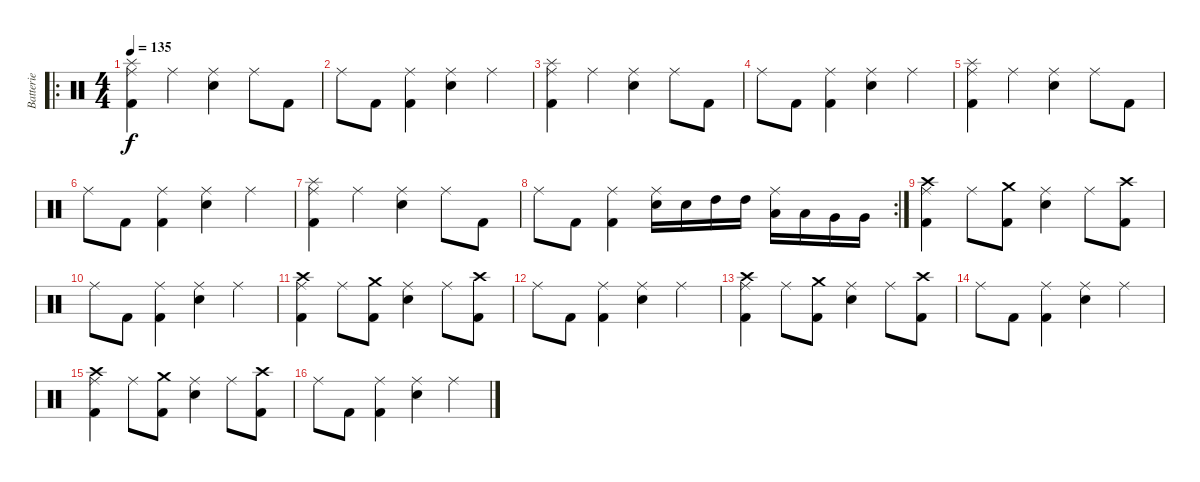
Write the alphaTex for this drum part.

\track ("Batterie" "Batterie") {instrument percussion}
\staff {score}
\articulation defaults
\ro
\ts (4 4)
\tempo 135
\clef neutral
\ks c
("Splash (hit)" "Ride (middle)" "Kick (hit) 2").4{dy f} "Ride (middle)".4 ("Ride (middle)" "Snare (hit) 2").4 "Ride (middle)".8 "Kick (hit) 2".8 |
"Ride (middle)".8 "Kick (hit) 2".8 ("Ride (middle)" "Kick (hit) 2").4 ("Ride (middle)" "Snare (hit) 2").4 "Ride (middle)".4 |
("Splash (hit)" "Ride (middle)" "Kick (hit) 2").4 "Ride (middle)".4 ("Ride (middle)" "Snare (hit) 2").4 "Ride (middle)".8 "Kick (hit) 2".8 |
"Ride (middle)".8 "Kick (hit) 2".8 ("Ride (middle)" "Kick (hit) 2").4 ("Ride (middle)" "Snare (hit) 2").4 "Ride (middle)".4 |
("Splash (hit)" "Ride (middle)" "Kick (hit) 2").4 "Ride (middle)".4 ("Ride (middle)" "Snare (hit) 2").4 "Ride (middle)".8 "Kick (hit) 2".8 |
"Ride (middle)".8 "Kick (hit) 2".8 ("Ride (middle)" "Kick (hit) 2").4 ("Ride (middle)" "Snare (hit) 2").4 "Ride (middle)".4 |
("Splash (hit)" "Ride (middle)" "Kick (hit) 2").4 "Ride (middle)".4 ("Ride (middle)" "Snare (hit) 2").4 "Ride (middle)".8 "Kick (hit) 2".8 |
\rc 2 "Ride (middle)".8 "Kick (hit) 2".8
("Ride (middle)" "Kick (hit) 2").4 ("Ride (middle)" "Snare (hit) 2").16 "Snare (hit) 2".16 "High Tom (hit)".16 "High Tom (hit)".16 ("Ride (middle)" "Low Tom (hit)").16 "Low Tom (hit)".16 "Very Low Tom (hit)".16 "Very Low Tom (hit)".16 |
("Crash high (hit)" "Ride (middle)" "Kick (hit) 2").4 "Ride (middle)".8 ("Crash medium (hit)" "Kick (hit) 2").8 ("Ride (middle)" "Snare (hit) 2").4 "Ride (middle)".8 ("Crash high (hit)" "Kick (hit) 2").8 |
"Ride (middle)".8 "Kick (hit) 2".8 ("Ride (middle)" "Kick (hit) 2").4 ("Ride (middle)" "Snare (hit) 2").4 "Ride (middle)".4 |
("Crash high (hit)" "Ride (middle)" "Kick (hit) 2").4 "Ride (middle)".8 ("Crash medium (hit)" "Kick (hit) 2").8 ("Ride (middle)" "Snare (hit) 2").4 "Ride (middle)".8 ("Crash high (hit)" "Kick (hit) 2").8 |
"Ride (middle)".8 "Kick (hit) 2".8 ("Ride (middle)" "Kick (hit) 2").4 ("Ride (middle)" "Snare (hit) 2").4 "Ride (middle)".4 |
("Crash high (hit)" "Ride (middle)" "Kick (hit) 2").4 "Ride (middle)".8 ("Crash medium (hit)" "Kick (hit) 2").8 ("Ride (middle)" "Snare (hit) 2").4 "Ride (middle)".8 ("Crash high (hit)" "Kick (hit) 2").8 |
"Ride (middle)".8 "Kick (hit) 2".8 ("Ride (middle)" "Kick (hit) 2").4 ("Ride (middle)" "Snare (hit) 2").4 "Ride (middle)".4 |
("Crash high (hit)" "Ride (middle)" "Kick (hit) 2").4 "Ride (middle)".8 ("Crash medium (hit)" "Kick (hit) 2").8 ("Ride (middle)" "Snare (hit) 2").4 "Ride (middle)".8 ("Crash high (hit)" "Kick (hit) 2").8 |
"Ride (middle)".8 "Kick (hit) 2".8 ("Ride (middle)" "Kick (hit) 2").4 ("Ride (middle)" "Snare (hit) 2").4 "Ride (middle)".4
